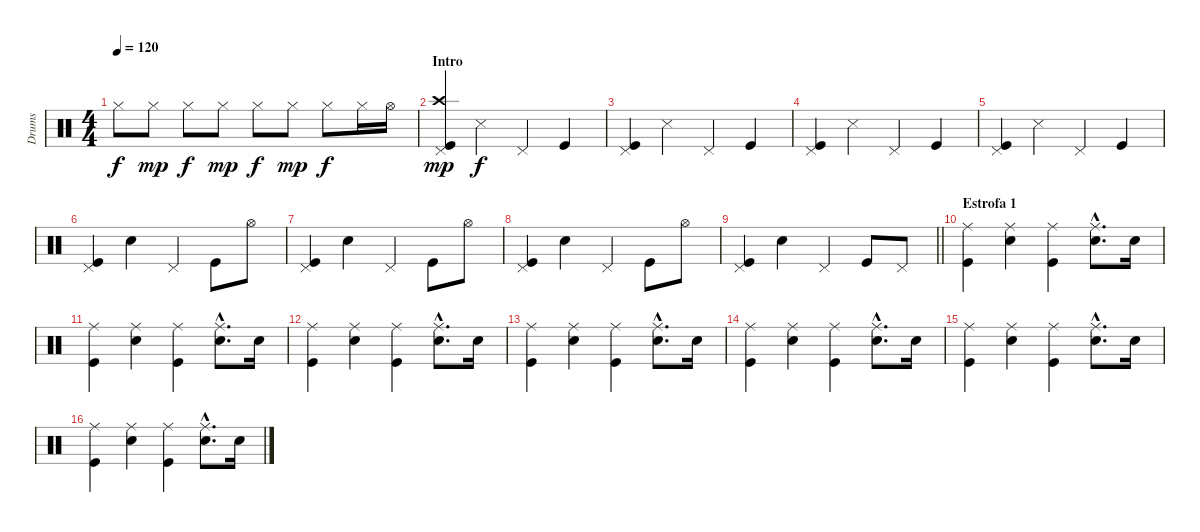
\track ("Drums" "Drums") {instrument percussion}
\staff {score}
\articulation defaults
\ts (4 4)
\tempo 120
\clef neutral
\ks c "Hi-Hat (closed)".8{dy f} "Hi-Hat (closed)".8{dy mp} "Hi-Hat (closed)".8{dy f} "Hi-Hat (closed)".8{dy mp} "Hi-Hat (closed)".8{dy f} "Hi-Hat (closed)".8{dy mp} "Hi-Hat (closed)".8{dy f} "Hi-Hat (closed)".16 "Hi-Hat (open)".16
|
\section ("" "Intro")
("Pedal Hi-Hat (hit)" "Crash high (hit)" "Kick (hit)").4{dy mp} "Snare (side stick) 3".4{dy f} "Pedal Hi-Hat (hit)".4 "Kick (hit)".4 |
("Pedal Hi-Hat (hit)" "Kick (hit)").4 "Snare (side stick) 3".4 "Pedal Hi-Hat (hit)".4 "Kick (hit)".4 |
("Pedal Hi-Hat (hit)" "Kick (hit)").4 "Snare (side stick) 3".4 "Pedal Hi-Hat (hit)".4 "Kick (hit)".4 |
("Pedal Hi-Hat (hit)" "Kick (hit)").4 "Snare (side stick) 3".4 "Pedal Hi-Hat (hit)".4 "Kick (hit)".4 |
("Pedal Hi-Hat (hit)" "Kick (hit)").4 "Electric Snare (hit)".4 "Pedal Hi-Hat (hit)".4 "Kick (hit)".8 "Hi-Hat (open)".8 |
("Pedal Hi-Hat (hit)" "Kick (hit)").4 "Electric Snare (hit)".4 "Pedal Hi-Hat (hit)".4 "Kick (hit)".8 "Hi-Hat (open)".8 |
("Pedal Hi-Hat (hit)" "Kick (hit)").4 "Electric Snare (hit)".4 "Pedal Hi-Hat (hit)".4 "Kick (hit)".8 "Hi-Hat (open)".8 |
\barLineRight lightlight
("Pedal Hi-Hat (hit)" "Kick (hit)").4 "Electric Snare (hit)".4 "Pedal Hi-Hat (hit)".4 "Kick (hit)".8 "Pedal Hi-Hat (hit)".8 |
\section ("" "Estrofa 1")
("Ride (middle)" "Kick (hit)").4 ("Ride (middle)" "Electric Snare (hit)").4 ("Ride (middle)" "Kick (hit)").4 ("Ride (middle)"{hac} "Electric Snare (hit)"{hac}).8{d} "Electric Snare (hit)".16 |
("Ride (middle)" "Kick (hit)").4 ("Ride (middle)" "Electric Snare (hit)").4 ("Ride (middle)" "Kick (hit)").4 ("Ride (middle)"{hac} "Electric Snare (hit)"{hac}).8{d} "Electric Snare (hit)".16 |
("Ride (middle)" "Kick (hit)").4 ("Ride (middle)" "Electric Snare (hit)").4 ("Ride (middle)" "Kick (hit)").4 ("Ride (middle)"{hac} "Electric Snare (hit)"{hac}).8{d} "Electric Snare (hit)".16 |
("Ride (middle)" "Kick (hit)").4 ("Ride (middle)" "Electric Snare (hit)").4 ("Ride (middle)" "Kick (hit)").4 ("Ride (middle)"{hac} "Electric Snare (hit)"{hac}).8{d} "Electric Snare (hit)".16 |
("Ride (middle)" "Kick (hit)").4 ("Ride (middle)" "Electric Snare (hit)").4 ("Ride (middle)" "Kick (hit)").4 ("Ride (middle)"{hac} "Electric Snare (hit)"{hac}).8{d} "Electric Snare (hit)".16 |
("Ride (middle)" "Kick (hit)").4 ("Ride (middle)" "Electric Snare (hit)").4 ("Ride (middle)" "Kick (hit)").4 ("Ride (middle)"{hac} "Electric Snare (hit)"{hac}).8{d} "Electric Snare (hit)".16 |
("Ride (middle)" "Kick (hit)").4 ("Ride (middle)" "Electric Snare (hit)").4 ("Ride (middle)" "Kick (hit)").4 ("Ride (middle)"{hac} "Electric Snare (hit)"{hac}).8{d} "Electric Snare (hit)".16
